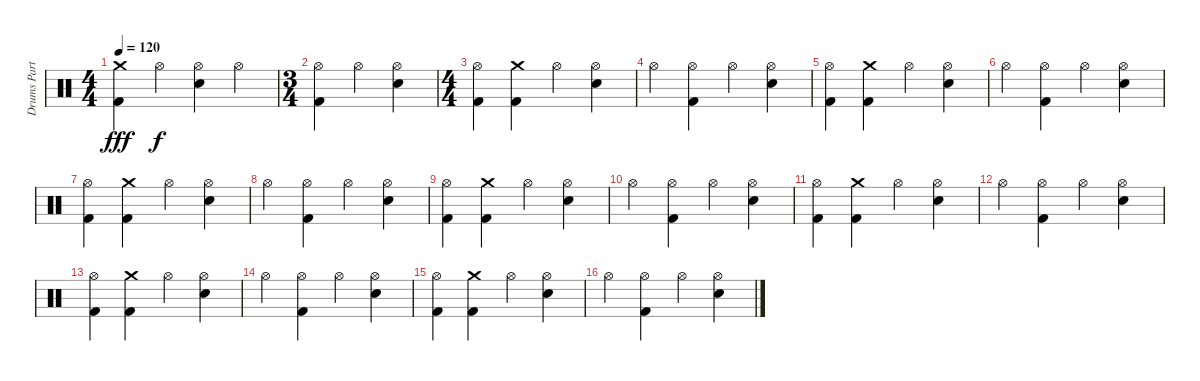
\track ("Drums Part" "Drums Part") {instrument percussion}
\staff {score}
\articulation defaults
\ts (4 4)
\tempo 120
\clef neutral
\ks c
("Crash medium (hit)" "Kick (hit) 2").4{dy fff} "Hi-Hat (open)".4{dy f} ("Hi-Hat (open)" "Electric Snare (hit)").4 "Hi-Hat (open)".4 |
\ts (3 4)
("Hi-Hat (open)" "Kick (hit) 2").4 "Hi-Hat (open)".4 ("Hi-Hat (open)" "Electric Snare (hit)").4 |
\ts (4 4)
("Hi-Hat (open)" "Kick (hit) 2").4 ("Crash medium (hit)" "Kick (hit) 2").4 "Hi-Hat (open)".4 ("Hi-Hat (open)" "Electric Snare (hit)").4 |
"Hi-Hat (open)".4 ("Hi-Hat (open)" "Kick (hit) 2").4 "Hi-Hat (open)".4 ("Hi-Hat (open)" "Electric Snare (hit)").4 |
("Hi-Hat (open)" "Kick (hit) 2").4 ("Crash medium (hit)" "Kick (hit) 2").4 "Hi-Hat (open)".4 ("Hi-Hat (open)" "Electric Snare (hit)").4 |
"Hi-Hat (open)".4 ("Hi-Hat (open)" "Kick (hit) 2").4 "Hi-Hat (open)".4 ("Hi-Hat (open)" "Electric Snare (hit)").4 |
("Hi-Hat (open)" "Kick (hit) 2").4 ("Crash medium (hit)" "Kick (hit) 2").4 "Hi-Hat (open)".4 ("Hi-Hat (open)" "Electric Snare (hit)").4 |
"Hi-Hat (open)".4 ("Hi-Hat (open)" "Kick (hit) 2").4 "Hi-Hat (open)".4 ("Hi-Hat (open)" "Electric Snare (hit)").4 |
("Hi-Hat (open)" "Kick (hit) 2").4 ("Crash medium (hit)" "Kick (hit) 2").4 "Hi-Hat (open)".4 ("Hi-Hat (open)" "Electric Snare (hit)").4 |
"Hi-Hat (open)".4 ("Hi-Hat (open)" "Kick (hit) 2").4 "Hi-Hat (open)".4 ("Hi-Hat (open)" "Electric Snare (hit)").4 |
("Hi-Hat (open)" "Kick (hit) 2").4 ("Crash medium (hit)" "Kick (hit) 2").4 "Hi-Hat (open)".4 ("Hi-Hat (open)" "Electric Snare (hit)").4 |
"Hi-Hat (open)".4 ("Hi-Hat (open)" "Kick (hit) 2").4 "Hi-Hat (open)".4 ("Hi-Hat (open)" "Electric Snare (hit)").4 |
("Hi-Hat (open)" "Kick (hit) 2").4 ("Crash medium (hit)" "Kick (hit) 2").4 "Hi-Hat (open)".4 ("Hi-Hat (open)" "Electric Snare (hit)").4 |
"Hi-Hat (open)".4 ("Hi-Hat (open)" "Kick (hit) 2").4 "Hi-Hat (open)".4 ("Hi-Hat (open)" "Electric Snare (hit)").4 |
("Hi-Hat (open)" "Kick (hit) 2").4 ("Crash medium (hit)" "Kick (hit) 2").4 "Hi-Hat (open)".4 ("Hi-Hat (open)" "Electric Snare (hit)").4 |
"Hi-Hat (open)".4 ("Hi-Hat (open)" "Kick (hit) 2").4 "Hi-Hat (open)".4 ("Hi-Hat (open)" "Electric Snare (hit)").4
